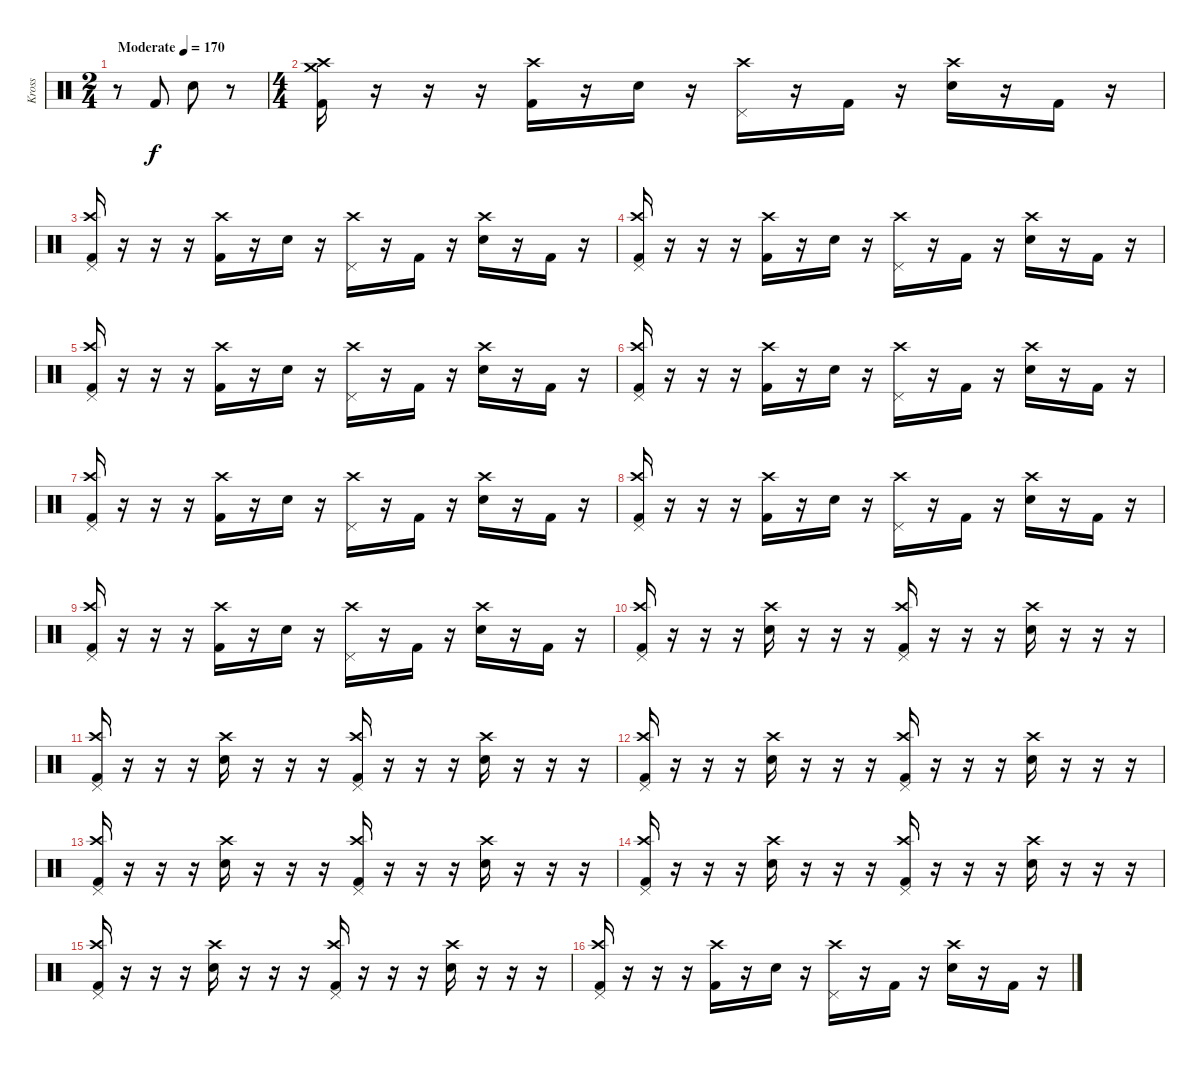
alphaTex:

\track ("Kross" "Kross") {instrument percussion}
\staff {score}
\articulation defaults
\ts (2 4)
\tempo (170 "Moderate")
\clef neutral
\ks c
r.8{dy f} "Kick (hit) 2".8 "Electric Snare (hit)".8 r.8 |
\ts (4 4)
("Crash medium (hit)" "Crash high (hit)" "Kick (hit) 2").16 r.16 r.16 r.16 ("Crash high (hit)" "Kick (hit) 2").16 r.16 "Electric Snare (hit)".16 r.16 ("Pedal Hi-Hat (hit)" "Crash high (hit)").16 r.16 "Kick (hit) 2".16 r.16 ("Crash high (hit)" "Electric Snare (hit)").16 r.16 "Kick (hit) 2".16 r.16 |
("Pedal Hi-Hat (hit)" "Crash high (hit)" "Kick (hit) 2").16 r.16 r.16 r.16 ("Crash high (hit)" "Kick (hit) 2").16 r.16 "Electric Snare (hit)".16 r.16 ("Pedal Hi-Hat (hit)" "Crash high (hit)").16 r.16 "Kick (hit) 2".16 r.16 ("Crash high (hit)" "Electric Snare (hit)").16 r.16 "Kick (hit) 2".16 r.16 |
("Pedal Hi-Hat (hit)" "Crash high (hit)" "Kick (hit) 2").16 r.16 r.16 r.16 ("Crash high (hit)" "Kick (hit) 2").16 r.16 "Electric Snare (hit)".16 r.16 ("Pedal Hi-Hat (hit)" "Crash high (hit)").16 r.16 "Kick (hit) 2".16 r.16 ("Crash high (hit)" "Electric Snare (hit)").16 r.16 "Kick (hit) 2".16 r.16 |
("Pedal Hi-Hat (hit)" "Crash high (hit)" "Kick (hit) 2").16 r.16 r.16 r.16 ("Crash high (hit)" "Kick (hit) 2").16 r.16 "Electric Snare (hit)".16 r.16 ("Pedal Hi-Hat (hit)" "Crash high (hit)").16 r.16 "Kick (hit) 2".16 r.16 ("Crash high (hit)" "Electric Snare (hit)").16 r.16 "Kick (hit) 2".16 r.16 |
("Pedal Hi-Hat (hit)" "Crash high (hit)" "Kick (hit) 2").16 r.16 r.16 r.16 ("Crash high (hit)" "Kick (hit) 2").16 r.16 "Electric Snare (hit)".16 r.16 ("Pedal Hi-Hat (hit)" "Crash high (hit)").16 r.16 "Kick (hit) 2".16 r.16 ("Crash high (hit)" "Electric Snare (hit)").16 r.16 "Kick (hit) 2".16 r.16 |
("Pedal Hi-Hat (hit)" "Crash high (hit)" "Kick (hit) 2").16 r.16 r.16 r.16 ("Crash high (hit)" "Kick (hit) 2").16 r.16 "Electric Snare (hit)".16 r.16 ("Pedal Hi-Hat (hit)" "Crash high (hit)").16 r.16 "Kick (hit) 2".16 r.16 ("Crash high (hit)" "Electric Snare (hit)").16 r.16 "Kick (hit) 2".16 r.16 |
("Pedal Hi-Hat (hit)" "Crash high (hit)" "Kick (hit) 2").16 r.16 r.16 r.16 ("Crash high (hit)" "Kick (hit) 2").16 r.16 "Electric Snare (hit)".16 r.16 ("Pedal Hi-Hat (hit)" "Crash high (hit)").16 r.16 "Kick (hit) 2".16 r.16 ("Crash high (hit)" "Electric Snare (hit)").16 r.16 "Kick (hit) 2".16 r.16 |
("Pedal Hi-Hat (hit)" "Crash high (hit)" "Kick (hit) 2").16 r.16 r.16 r.16 ("Crash high (hit)" "Kick (hit) 2").16 r.16 "Electric Snare (hit)".16 r.16 ("Pedal Hi-Hat (hit)" "Crash high (hit)").16 r.16 "Kick (hit) 2".16 r.16 ("Crash high (hit)" "Electric Snare (hit)").16 r.16 "Kick (hit) 2".16 r.16 |
("Crash high (hit)" "Pedal Hi-Hat (hit)" "Kick (hit) 2").16 r.16 r.16 r.16 ("Crash high (hit)" "Electric Snare (hit)").16 r.16 r.16 r.16 ("Crash high (hit)" "Pedal Hi-Hat (hit)" "Kick (hit) 2").16 r.16 r.16 r.16 ("Crash high (hit)" "Electric Snare (hit)").16 r.16 r.16 r.16 |
("Crash high (hit)" "Pedal Hi-Hat (hit)" "Kick (hit) 2").16 r.16 r.16 r.16 ("Crash high (hit)" "Electric Snare (hit)").16 r.16 r.16 r.16 ("Crash high (hit)" "Pedal Hi-Hat (hit)" "Kick (hit) 2").16 r.16 r.16 r.16 ("Crash high (hit)" "Electric Snare (hit)").16 r.16 r.16 r.16 |
("Crash high (hit)" "Pedal Hi-Hat (hit)" "Kick (hit) 2").16 r.16 r.16 r.16 ("Crash high (hit)" "Electric Snare (hit)").16 r.16 r.16 r.16 ("Crash high (hit)" "Pedal Hi-Hat (hit)" "Kick (hit) 2").16 r.16 r.16 r.16 ("Crash high (hit)" "Electric Snare (hit)").16 r.16 r.16 r.16 |
("Crash high (hit)" "Pedal Hi-Hat (hit)" "Kick (hit) 2").16 r.16 r.16 r.16 ("Crash high (hit)" "Electric Snare (hit)").16 r.16 r.16 r.16 ("Crash high (hit)" "Pedal Hi-Hat (hit)" "Kick (hit) 2").16 r.16 r.16 r.16 ("Crash high (hit)" "Electric Snare (hit)").16 r.16 r.16 r.16 |
("Crash high (hit)" "Pedal Hi-Hat (hit)" "Kick (hit) 2").16 r.16 r.16 r.16 ("Crash high (hit)" "Electric Snare (hit)").16 r.16 r.16 r.16 ("Crash high (hit)" "Pedal Hi-Hat (hit)" "Kick (hit) 2").16 r.16 r.16 r.16 ("Crash high (hit)" "Electric Snare (hit)").16 r.16 r.16 r.16 |
("Crash high (hit)" "Pedal Hi-Hat (hit)" "Kick (hit) 2").16 r.16 r.16 r.16 ("Crash high (hit)" "Electric Snare (hit)").16 r.16 r.16 r.16 ("Crash high (hit)" "Pedal Hi-Hat (hit)" "Kick (hit) 2").16 r.16 r.16 r.16 ("Crash high (hit)" "Electric Snare (hit)").16 r.16 r.16 r.16 |
("Crash high (hit)" "Pedal Hi-Hat (hit)" "Kick (hit) 2").16 r.16 r.16 r.16 ("Crash high (hit)" "Kick (hit) 2").16 r.16 "Electric Snare (hit)".16 r.16 ("Crash high (hit)" "Pedal Hi-Hat (hit)").16 r.16 "Kick (hit) 2".16 r.16 ("Crash high (hit)" "Electric Snare (hit)").16 r.16 "Kick (hit) 2".16 r.16
